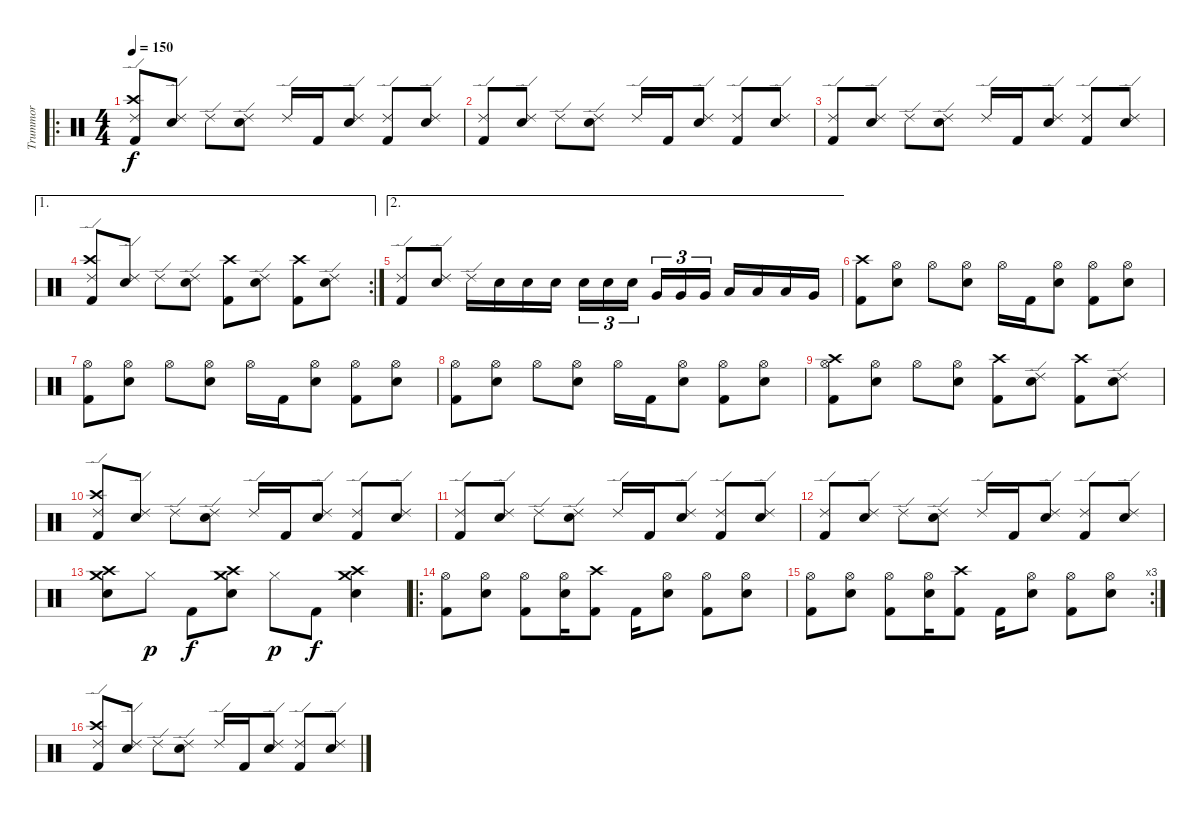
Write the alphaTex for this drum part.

\track ("Trummor" "Trummor") {instrument percussion}
\staff {score}
\articulation defaults
\ro
\ts (4 4)
\tempo 150
\clef neutral
\ks c
("Ride (edge) 2" "Crash high (hit)" "Kick (hit) 2").8{dy f} ("Ride (edge) 2" "Snare (hit) 2").8 "Ride (edge) 2".8 ("Ride (edge) 2" "Snare (hit) 2").8 "Ride (edge) 2".16 "Kick (hit) 2".16 ("Ride (edge) 2" "Snare (hit) 2").8 ("Ride (edge) 2" "Kick (hit) 2").8 ("Ride (edge) 2" "Snare (hit) 2").8 |
("Ride (edge) 2" "Kick (hit) 2").8 ("Ride (edge) 2" "Snare (hit) 2").8 "Ride (edge) 2".8 ("Ride (edge) 2" "Snare (hit) 2").8 "Ride (edge) 2".16 "Kick (hit) 2".16 ("Ride (edge) 2" "Snare (hit) 2").8 ("Ride (edge) 2" "Kick (hit) 2").8 ("Ride (edge) 2" "Snare (hit) 2").8 |
("Ride (edge) 2" "Kick (hit) 2").8 ("Ride (edge) 2" "Snare (hit) 2").8 "Ride (edge) 2".8 ("Ride (edge) 2" "Snare (hit) 2").8 "Ride (edge) 2".16 "Kick (hit) 2".16 ("Ride (edge) 2" "Snare (hit) 2").8 ("Ride (edge) 2" "Kick (hit) 2").8 ("Ride (edge) 2" "Snare (hit) 2").8 |
\ae 1
\rc 2
("Ride (edge) 2" "Crash high (hit)" "Kick (hit) 2").8 ("Ride (edge) 2" "Snare (hit) 2").8 "Ride (edge) 2".8 ("Ride (edge) 2" "Snare (hit) 2").8 ("Crash high (hit)" "Kick (hit) 2").8 ("Ride (edge) 2" "Snare (hit) 2").8 ("Crash high (hit)" "Kick (hit) 2").8 ("Ride (edge) 2" "Snare (hit) 2").8 |
\ae 2
("Ride (edge) 2" "Kick (hit) 2").8 ("Ride (edge) 2" "Snare (hit) 2").8 "Ride (edge) 2".16 "Snare (hit) 2".16 "Snare (hit) 2".16 "Snare (hit) 2".16 "Snare (hit) 2".16{tu (3 2)} "Snare (hit) 2".16{tu (3 2)} "Snare (hit) 2".16{tu (3 2)} "Very Low Tom (hit)".16{tu (3 2)} "Very Low Tom (hit)".16{tu (3 2)} "Very Low Tom (hit)".16{tu (3 2)} "Low Floor Tom (hit)".16 "Low Floor Tom (hit)".16 "Low Floor Tom (hit)".16 "Very Low Tom (hit)".16 |
("Crash high (hit)" "Kick (hit) 2").8 ("Hi-Hat (open)" "Snare (hit) 2").8 "Hi-Hat (open)".8 ("Hi-Hat (open)" "Snare (hit) 2").8 "Hi-Hat (open)".16 "Kick (hit) 2".16 ("Hi-Hat (open)" "Snare (hit) 2").8 ("Hi-Hat (open)" "Kick (hit) 2").8 ("Hi-Hat (open)" "Snare (hit) 2").8 |
("Hi-Hat (open)" "Kick (hit) 2").8 ("Hi-Hat (open)" "Snare (hit) 2").8 "Hi-Hat (open)".8 ("Hi-Hat (open)" "Snare (hit) 2").8 "Hi-Hat (open)".16 "Kick (hit) 2".16 ("Hi-Hat (open)" "Snare (hit) 2").8 ("Hi-Hat (open)" "Kick (hit) 2").8 ("Hi-Hat (open)" "Snare (hit) 2").8 |
("Hi-Hat (open)" "Kick (hit) 2").8 ("Hi-Hat (open)" "Snare (hit) 2").8 "Hi-Hat (open)".8 ("Hi-Hat (open)" "Snare (hit) 2").8 "Hi-Hat (open)".16 "Kick (hit) 2".16 ("Hi-Hat (open)" "Snare (hit) 2").8 ("Hi-Hat (open)" "Kick (hit) 2").8 ("Hi-Hat (open)" "Snare (hit) 2").8 |
("Hi-Hat (open)" "Crash high (hit)" "Kick (hit) 2").8 ("Hi-Hat (open)" "Snare (hit) 2").8 "Hi-Hat (open)".8 ("Hi-Hat (open)" "Snare (hit) 2").8 ("Crash high (hit)" "Kick (hit) 2").8 ("Ride (edge) 2" "Snare (hit) 2").8 ("Crash high (hit)" "Kick (hit) 2").8 ("Ride (edge) 2" "Snare (hit) 2").8 |
("Ride (edge) 2" "Crash high (hit)" "Kick (hit) 2").8 ("Ride (edge) 2" "Snare (hit) 2").8 "Ride (edge) 2".8 ("Ride (edge) 2" "Snare (hit) 2").8 "Ride (edge) 2".16 "Kick (hit) 2".16 ("Ride (edge) 2" "Snare (hit) 2").8 ("Ride (edge) 2" "Kick (hit) 2").8 ("Ride (edge) 2" "Snare (hit) 2").8 |
("Ride (edge) 2" "Kick (hit) 2").8 ("Ride (edge) 2" "Snare (hit) 2").8 "Ride (edge) 2".8 ("Ride (edge) 2" "Snare (hit) 2").8 "Ride (edge) 2".16 "Kick (hit) 2".16 ("Ride (edge) 2" "Snare (hit) 2").8 ("Ride (edge) 2" "Kick (hit) 2").8 ("Ride (edge) 2" "Snare (hit) 2").8 |
("Ride (edge) 2" "Kick (hit) 2").8 ("Ride (edge) 2" "Snare (hit) 2").8 "Ride (edge) 2".8 ("Ride (edge) 2" "Snare (hit) 2").8 "Ride (edge) 2".16 "Kick (hit) 2".16 ("Ride (edge) 2" "Snare (hit) 2").8 ("Ride (edge) 2" "Kick (hit) 2").8 ("Ride (edge) 2" "Snare (hit) 2").8 |
("Crash medium (hit)" "Snare (hit) 2" "Crash high (hit)").8 "Hi-Hat (closed)".8{dy p} "Kick (hit) 2".8{dy f} ("Crash medium (hit)" "Snare (hit) 2" "Crash high (hit)").8 "Hi-Hat (closed)".8{dy p} "Kick (hit) 2".8{dy f} ("Crash medium (hit)" "Snare (hit) 2" "Crash high (hit)").4 |
\ro
("Hi-Hat (open)" "Kick (hit) 2").8 ("Hi-Hat (open)" "Snare (hit) 2").8 ("Hi-Hat (open)" "Kick (hit) 2").8 ("Hi-Hat (open)" "Snare (hit) 2").16 ("Crash high (hit)" "Kick (hit) 2").8 "Kick (hit) 2".16 ("Hi-Hat (open)" "Snare (hit) 2").8 ("Hi-Hat (open)" "Kick (hit) 2").8 ("Hi-Hat (open)" "Snare (hit) 2").8 |
\rc 3
("Hi-Hat (open)" "Kick (hit) 2").8 ("Hi-Hat (open)" "Snare (hit) 2").8 ("Hi-Hat (open)" "Kick (hit) 2").8 ("Hi-Hat (open)" "Snare (hit) 2").16 ("Crash high (hit)" "Kick (hit) 2").8 "Kick (hit) 2".16 ("Hi-Hat (open)" "Snare (hit) 2").8 ("Hi-Hat (open)" "Kick (hit) 2").8 ("Hi-Hat (open)" "Snare (hit) 2").8 |
("Ride (edge) 2" "Crash high (hit)" "Kick (hit) 2").8 ("Ride (edge) 2" "Snare (hit) 2").8 "Ride (edge) 2".8 ("Ride (edge) 2" "Snare (hit) 2").8 "Ride (edge) 2".16 "Kick (hit) 2".16 ("Ride (edge) 2" "Snare (hit) 2").8 ("Ride (edge) 2" "Kick (hit) 2").8 ("Ride (edge) 2" "Snare (hit) 2").8
